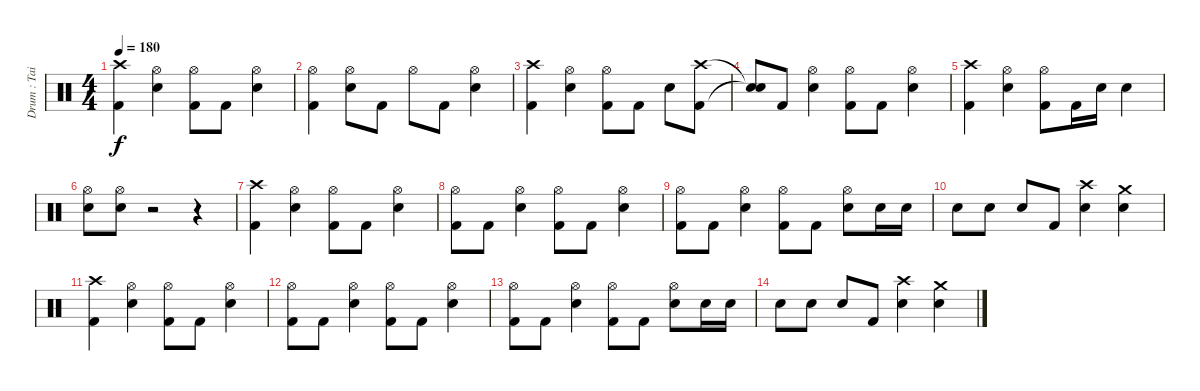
\track ("Drum : Tainaka Ritsu" "Drum : Tai") {instrument percussion}
\staff {score}
\articulation defaults
\ts (4 4)
\tempo 180
\clef neutral
\ks c
("Crash high (hit)" "Kick (hit) 2").4{dy f} ("Hi-Hat (open)" "Snare (hit) 2").4 ("Hi-Hat (open)" "Kick (hit) 2").8 "Kick (hit) 2".8 ("Hi-Hat (open)" "Snare (hit) 2").4 |
("Hi-Hat (open)" "Kick (hit) 2").4 ("Hi-Hat (open)" "Snare (hit) 2").8 "Kick (hit) 2".8 "Hi-Hat (open)".8 "Kick (hit) 2".8 ("Hi-Hat (open)" "Snare (hit) 2").4 |
("Crash high (hit)" "Kick (hit) 2").4 ("Hi-Hat (open)" "Snare (hit) 2").4 ("Hi-Hat (open)" "Kick (hit) 2").8 "Kick (hit) 2".8 "Snare (hit) 2".8 ("Crash high (hit)" "Kick (hit) 2").8 |
("Snare (hit)"{t} "Snare (hit)"{t}).8 "Kick (hit) 2".8 ("Hi-Hat (open)" "Snare (hit) 2").4 ("Hi-Hat (open)" "Kick (hit) 2").8 "Kick (hit) 2".8 ("Hi-Hat (open)" "Snare (hit) 2").4 |
("Crash high (hit)" "Kick (hit) 2").4 ("Hi-Hat (open)" "Snare (hit) 2").4 ("Hi-Hat (open)" "Kick (hit) 2").8 "Kick (hit) 2".16 "Snare (hit) 2".16 "Snare (hit) 2".4 |
("Hi-Hat (open)" "Snare (hit) 2").8 ("Hi-Hat (open)" "Snare (hit) 2").8 r.2 r.4 |
("Crash high (hit)" "Kick (hit) 2").4 ("Hi-Hat (open)" "Snare (hit) 2").4 ("Hi-Hat (open)" "Kick (hit) 2").8 "Kick (hit) 2".8 ("Hi-Hat (open)" "Snare (hit) 2").4 |
("Hi-Hat (open)" "Kick (hit) 2").8 "Kick (hit) 2".8 ("Hi-Hat (open)" "Snare (hit) 2").4 ("Hi-Hat (open)" "Kick (hit) 2").8 "Kick (hit) 2".8 ("Hi-Hat (open)" "Snare (hit) 2").4 |
("Hi-Hat (open)" "Kick (hit) 2").8 "Kick (hit) 2".8 ("Hi-Hat (open)" "Snare (hit) 2").4 ("Hi-Hat (open)" "Kick (hit) 2").8 "Kick (hit) 2".8 ("Hi-Hat (open)" "Snare (hit) 2").8 "Snare (hit) 2".16 "Snare (hit) 2".16 |
"Snare (hit) 2".8 "Snare (hit) 2".8 "Snare (hit) 2".8 "Kick (hit) 2".8 ("Crash high (hit)" "Snare (hit) 2").4 ("Crash medium (hit)" "Snare (hit) 2").4 |
("Crash high (hit)" "Kick (hit) 2").4 ("Hi-Hat (open)" "Snare (hit) 2").4 ("Hi-Hat (open)" "Kick (hit) 2").8 "Kick (hit) 2".8 ("Hi-Hat (open)" "Snare (hit) 2").4 |
("Hi-Hat (open)" "Kick (hit) 2").8 "Kick (hit) 2".8 ("Hi-Hat (open)" "Snare (hit) 2").4 ("Hi-Hat (open)" "Kick (hit) 2").8 "Kick (hit) 2".8 ("Hi-Hat (open)" "Snare (hit) 2").4 |
("Hi-Hat (open)" "Kick (hit) 2").8 "Kick (hit) 2".8 ("Hi-Hat (open)" "Snare (hit) 2").4 ("Hi-Hat (open)" "Kick (hit) 2").8 "Kick (hit) 2".8 ("Hi-Hat (open)" "Snare (hit) 2").8 "Snare (hit) 2".16 "Snare (hit) 2".16 |
"Snare (hit) 2".8 "Snare (hit) 2".8 "Snare (hit) 2".8 "Kick (hit) 2".8 ("Crash high (hit)" "Snare (hit) 2").4 ("Crash medium (hit)" "Snare (hit) 2").4
